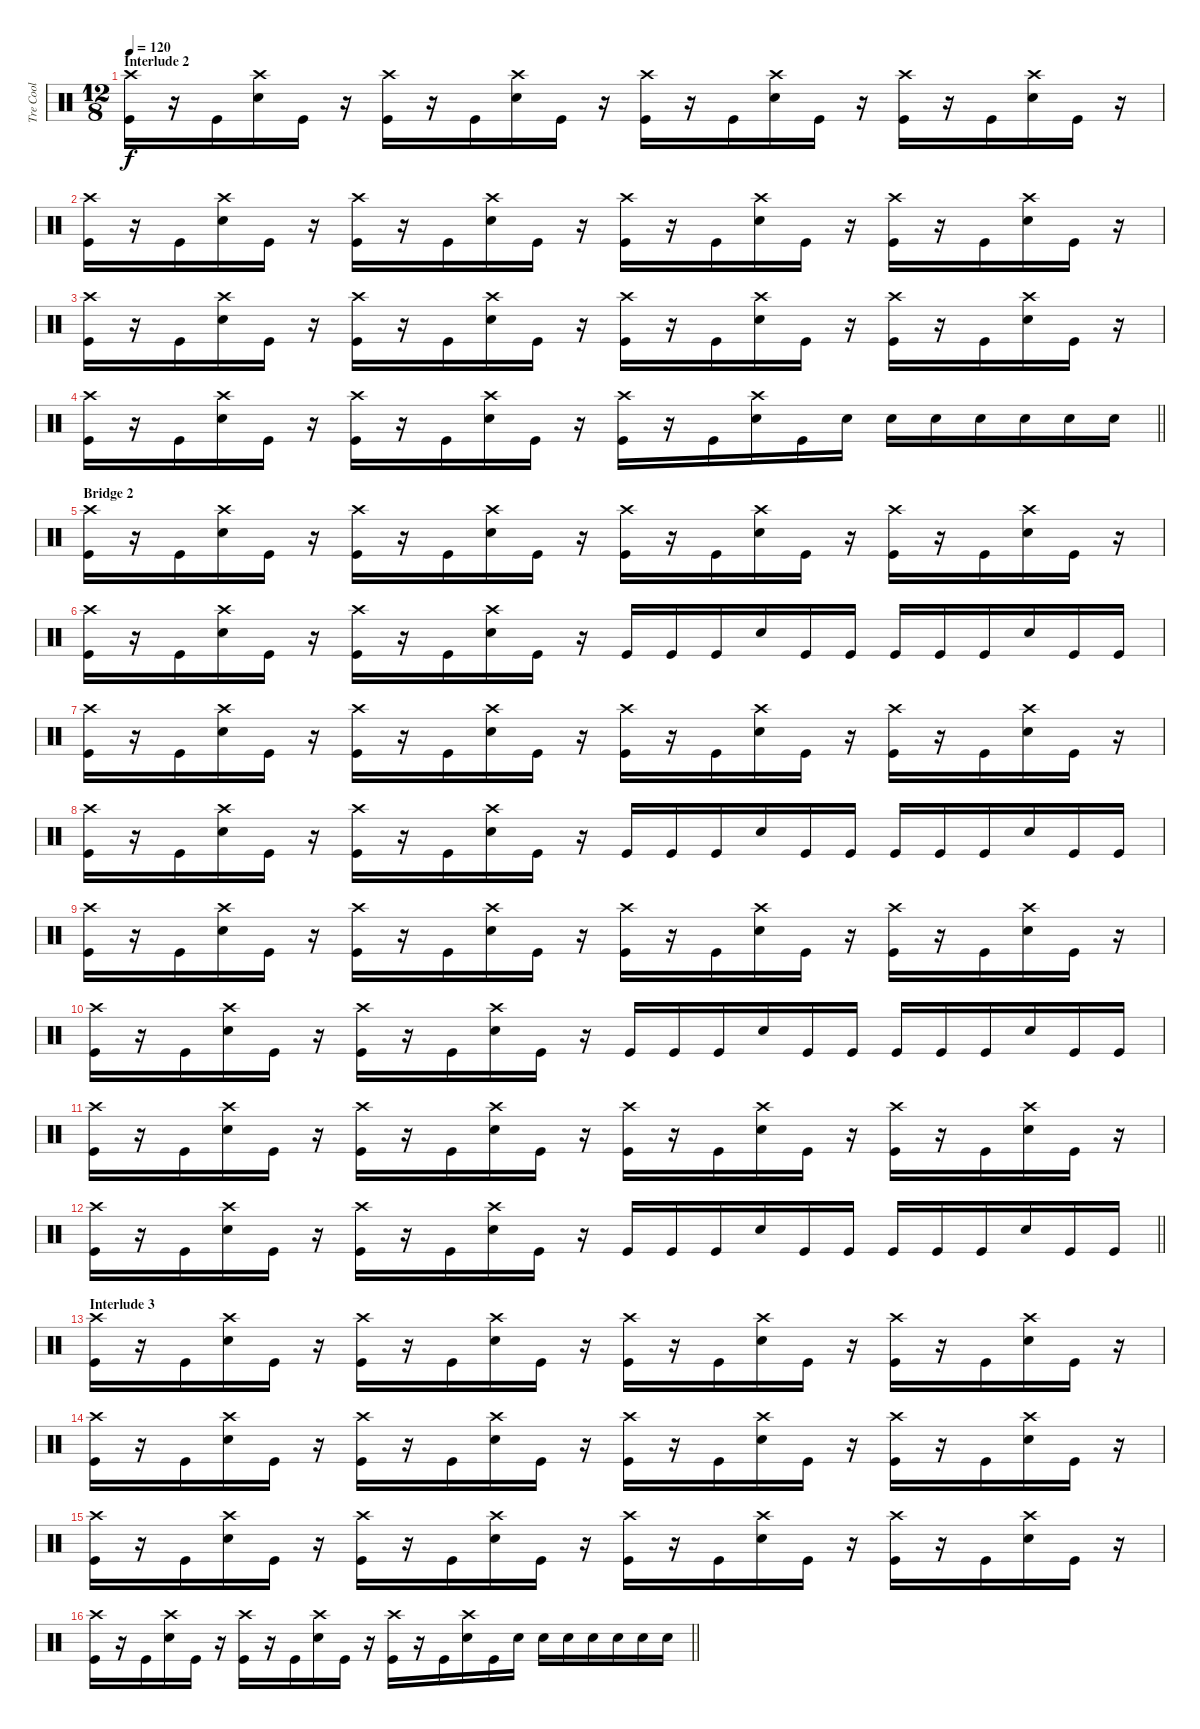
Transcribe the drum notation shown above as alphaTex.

\track ("Tre Cool" "Tre Cool") {instrument percussion}
\staff {score}
\articulation defaults
\ts (12 8)
\section ("" "Interlude 2")
\tempo 120
\clef neutral
\ks c
("Kick (hit)" "Crash high (hit)").16{dy f} r.16 "Kick (hit)".16 ("Snare (hit) 2" "Crash high (hit)").16 "Kick (hit)".16 r.16 ("Kick (hit)" "Crash high (hit)").16 r.16 "Kick (hit)".16 ("Snare (hit) 2" "Crash high (hit)").16 "Kick (hit)".16 r.16 ("Kick (hit)" "Crash high (hit)").16 r.16 "Kick (hit)".16 ("Snare (hit) 2" "Crash high (hit)").16 "Kick (hit)".16 r.16 ("Kick (hit)" "Crash high (hit)").16 r.16 "Kick (hit)".16 ("Snare (hit) 2" "Crash high (hit)").16 "Kick (hit)".16 r.16 |
("Kick (hit)" "Crash high (hit)").16 r.16 "Kick (hit)".16 ("Snare (hit) 2" "Crash high (hit)").16 "Kick (hit)".16 r.16 ("Kick (hit)" "Crash high (hit)").16 r.16 "Kick (hit)".16 ("Snare (hit) 2" "Crash high (hit)").16 "Kick (hit)".16 r.16 ("Kick (hit)" "Crash high (hit)").16 r.16 "Kick (hit)".16 ("Snare (hit) 2" "Crash high (hit)").16 "Kick (hit)".16 r.16 ("Kick (hit)" "Crash high (hit)").16 r.16 "Kick (hit)".16 ("Snare (hit) 2" "Crash high (hit)").16 "Kick (hit)".16 r.16 |
("Kick (hit)" "Crash high (hit)").16 r.16 "Kick (hit)".16 ("Snare (hit) 2" "Crash high (hit)").16 "Kick (hit)".16 r.16 ("Kick (hit)" "Crash high (hit)").16 r.16 "Kick (hit)".16 ("Snare (hit) 2" "Crash high (hit)").16 "Kick (hit)".16 r.16 ("Kick (hit)" "Crash high (hit)").16 r.16 "Kick (hit)".16 ("Snare (hit) 2" "Crash high (hit)").16 "Kick (hit)".16 r.16 ("Kick (hit)" "Crash high (hit)").16 r.16 "Kick (hit)".16 ("Snare (hit) 2" "Crash high (hit)").16 "Kick (hit)".16 r.16 |
\barLineRight lightlight
("Kick (hit)" "Crash high (hit)").16 r.16 "Kick (hit)".16 ("Snare (hit) 2" "Crash high (hit)").16 "Kick (hit)".16 r.16 ("Kick (hit)" "Crash high (hit)").16 r.16 "Kick (hit)".16 ("Snare (hit) 2" "Crash high (hit)").16 "Kick (hit)".16 r.16 ("Kick (hit)" "Crash high (hit)").16 r.16 "Kick (hit)".16 ("Snare (hit) 2" "Crash high (hit)").16 "Kick (hit)".16 "Snare (hit) 2".16 "Snare (hit) 2".16 "Snare (hit) 2".16 "Snare (hit) 2".16 "Snare (hit) 2".16 "Snare (hit) 2".16 "Snare (hit) 2".16 |
\section ("" "Bridge 2")
("Kick (hit)" "Crash high (hit)").16 r.16 "Kick (hit)".16 ("Snare (hit) 2" "Crash high (hit)").16 "Kick (hit)".16 r.16 ("Kick (hit)" "Crash high (hit)").16 r.16 "Kick (hit)".16 ("Snare (hit) 2" "Crash high (hit)").16 "Kick (hit)".16 r.16 ("Kick (hit)" "Crash high (hit)").16 r.16 "Kick (hit)".16 ("Snare (hit) 2" "Crash high (hit)").16 "Kick (hit)".16 r.16 ("Kick (hit)" "Crash high (hit)").16 r.16 "Kick (hit)".16 ("Snare (hit) 2" "Crash high (hit)").16 "Kick (hit)".16 r.16 |
("Kick (hit)" "Crash high (hit)").16 r.16 "Kick (hit)".16 ("Snare (hit) 2" "Crash high (hit)").16 "Kick (hit)".16 r.16 ("Kick (hit)" "Crash high (hit)").16 r.16 "Kick (hit)".16 ("Snare (hit) 2" "Crash high (hit)").16 "Kick (hit)".16 r.16 "Kick (hit)".16 "Kick (hit)".16 "Kick (hit)".16 "Snare (hit) 2".16 "Kick (hit)".16 "Kick (hit)".16 "Kick (hit)".16 "Kick (hit)".16 "Kick (hit)".16 "Snare (hit) 2".16 "Kick (hit)".16 "Kick (hit)".16 |
("Kick (hit)" "Crash high (hit)").16 r.16 "Kick (hit)".16 ("Snare (hit) 2" "Crash high (hit)").16 "Kick (hit)".16 r.16 ("Kick (hit)" "Crash high (hit)").16 r.16 "Kick (hit)".16 ("Snare (hit) 2" "Crash high (hit)").16 "Kick (hit)".16 r.16 ("Kick (hit)" "Crash high (hit)").16 r.16 "Kick (hit)".16 ("Snare (hit) 2" "Crash high (hit)").16 "Kick (hit)".16 r.16 ("Kick (hit)" "Crash high (hit)").16 r.16 "Kick (hit)".16 ("Snare (hit) 2" "Crash high (hit)").16 "Kick (hit)".16 r.16 |
("Kick (hit)" "Crash high (hit)").16 r.16 "Kick (hit)".16 ("Snare (hit) 2" "Crash high (hit)").16 "Kick (hit)".16 r.16 ("Kick (hit)" "Crash high (hit)").16 r.16 "Kick (hit)".16 ("Snare (hit) 2" "Crash high (hit)").16 "Kick (hit)".16 r.16 "Kick (hit)".16 "Kick (hit)".16 "Kick (hit)".16 "Snare (hit) 2".16 "Kick (hit)".16 "Kick (hit)".16 "Kick (hit)".16 "Kick (hit)".16 "Kick (hit)".16 "Snare (hit) 2".16 "Kick (hit)".16 "Kick (hit)".16 |
("Kick (hit)" "Crash high (hit)").16 r.16 "Kick (hit)".16 ("Snare (hit) 2" "Crash high (hit)").16 "Kick (hit)".16 r.16 ("Kick (hit)" "Crash high (hit)").16 r.16 "Kick (hit)".16 ("Snare (hit) 2" "Crash high (hit)").16 "Kick (hit)".16 r.16 ("Kick (hit)" "Crash high (hit)").16 r.16 "Kick (hit)".16 ("Snare (hit) 2" "Crash high (hit)").16 "Kick (hit)".16 r.16 ("Kick (hit)" "Crash high (hit)").16 r.16 "Kick (hit)".16 ("Snare (hit) 2" "Crash high (hit)").16 "Kick (hit)".16 r.16 |
("Kick (hit)" "Crash high (hit)").16 r.16 "Kick (hit)".16 ("Snare (hit) 2" "Crash high (hit)").16 "Kick (hit)".16 r.16 ("Kick (hit)" "Crash high (hit)").16 r.16 "Kick (hit)".16 ("Snare (hit) 2" "Crash high (hit)").16 "Kick (hit)".16 r.16 "Kick (hit)".16 "Kick (hit)".16 "Kick (hit)".16 "Snare (hit) 2".16 "Kick (hit)".16 "Kick (hit)".16 "Kick (hit)".16 "Kick (hit)".16 "Kick (hit)".16 "Snare (hit) 2".16 "Kick (hit)".16 "Kick (hit)".16 |
("Kick (hit)" "Crash high (hit)").16 r.16 "Kick (hit)".16 ("Snare (hit) 2" "Crash high (hit)").16 "Kick (hit)".16 r.16 ("Kick (hit)" "Crash high (hit)").16 r.16 "Kick (hit)".16 ("Snare (hit) 2" "Crash high (hit)").16 "Kick (hit)".16 r.16 ("Kick (hit)" "Crash high (hit)").16 r.16 "Kick (hit)".16 ("Snare (hit) 2" "Crash high (hit)").16 "Kick (hit)".16 r.16 ("Kick (hit)" "Crash high (hit)").16 r.16 "Kick (hit)".16 ("Snare (hit) 2" "Crash high (hit)").16 "Kick (hit)".16 r.16 |
\barLineRight lightlight
("Kick (hit)" "Crash high (hit)").16 r.16 "Kick (hit)".16 ("Snare (hit) 2" "Crash high (hit)").16 "Kick (hit)".16 r.16 ("Kick (hit)" "Crash high (hit)").16 r.16 "Kick (hit)".16 ("Snare (hit) 2" "Crash high (hit)").16 "Kick (hit)".16 r.16 "Kick (hit)".16 "Kick (hit)".16 "Kick (hit)".16 "Snare (hit) 2".16 "Kick (hit)".16 "Kick (hit)".16 "Kick (hit)".16 "Kick (hit)".16 "Kick (hit)".16 "Snare (hit) 2".16 "Kick (hit)".16 "Kick (hit)".16 |
\section ("" "Interlude 3")
("Kick (hit)" "Crash high (hit)").16 r.16 "Kick (hit)".16 ("Snare (hit) 2" "Crash high (hit)").16 "Kick (hit)".16 r.16 ("Kick (hit)" "Crash high (hit)").16 r.16 "Kick (hit)".16 ("Snare (hit) 2" "Crash high (hit)").16 "Kick (hit)".16 r.16 ("Kick (hit)" "Crash high (hit)").16 r.16 "Kick (hit)".16 ("Snare (hit) 2" "Crash high (hit)").16 "Kick (hit)".16 r.16 ("Kick (hit)" "Crash high (hit)").16 r.16 "Kick (hit)".16 ("Snare (hit) 2" "Crash high (hit)").16 "Kick (hit)".16 r.16 |
("Kick (hit)" "Crash high (hit)").16 r.16 "Kick (hit)".16 ("Snare (hit) 2" "Crash high (hit)").16 "Kick (hit)".16 r.16 ("Kick (hit)" "Crash high (hit)").16 r.16 "Kick (hit)".16 ("Snare (hit) 2" "Crash high (hit)").16 "Kick (hit)".16 r.16 ("Kick (hit)" "Crash high (hit)").16 r.16 "Kick (hit)".16 ("Snare (hit) 2" "Crash high (hit)").16 "Kick (hit)".16 r.16 ("Kick (hit)" "Crash high (hit)").16 r.16 "Kick (hit)".16 ("Snare (hit) 2" "Crash high (hit)").16 "Kick (hit)".16 r.16 |
("Kick (hit)" "Crash high (hit)").16 r.16 "Kick (hit)".16 ("Snare (hit) 2" "Crash high (hit)").16 "Kick (hit)".16 r.16 ("Kick (hit)" "Crash high (hit)").16 r.16 "Kick (hit)".16 ("Snare (hit) 2" "Crash high (hit)").16 "Kick (hit)".16 r.16 ("Kick (hit)" "Crash high (hit)").16 r.16 "Kick (hit)".16 ("Snare (hit) 2" "Crash high (hit)").16 "Kick (hit)".16 r.16 ("Kick (hit)" "Crash high (hit)").16 r.16 "Kick (hit)".16 ("Snare (hit) 2" "Crash high (hit)").16 "Kick (hit)".16 r.16 |
\barLineRight lightlight
("Kick (hit)" "Crash high (hit)").16 r.16 "Kick (hit)".16 ("Snare (hit) 2" "Crash high (hit)").16 "Kick (hit)".16 r.16 ("Kick (hit)" "Crash high (hit)").16 r.16 "Kick (hit)".16 ("Snare (hit) 2" "Crash high (hit)").16 "Kick (hit)".16 r.16 ("Kick (hit)" "Crash high (hit)").16 r.16 "Kick (hit)".16 ("Snare (hit) 2" "Crash high (hit)").16 "Kick (hit)".16 "Snare (hit) 2".16 "Snare (hit) 2".16 "Snare (hit) 2".16 "Snare (hit) 2".16 "Snare (hit) 2".16 "Snare (hit) 2".16 "Snare (hit) 2".16
